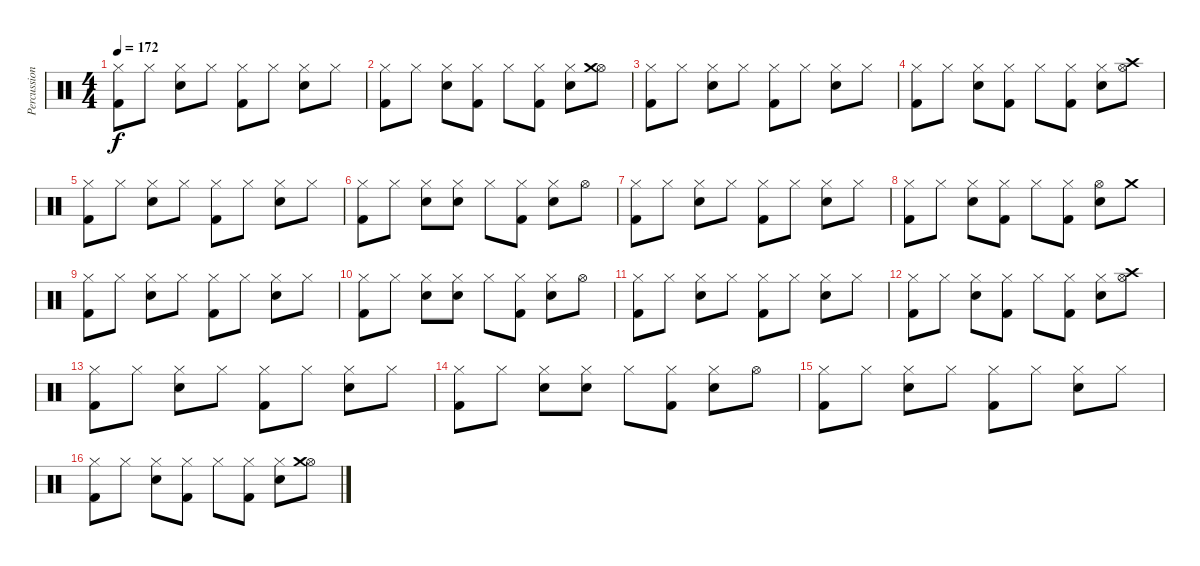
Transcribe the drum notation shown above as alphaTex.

\track ("Percussions" "Percussion") {instrument percussion}
\staff {score}
\articulation defaults
\ts (4 4)
\tempo 172
\clef neutral
\ks c
("Hi-Hat (closed)" "Kick (hit) 2").8{dy f} "Hi-Hat (closed)".8 ("Hi-Hat (closed)" "Electric Snare (hit)").8 "Hi-Hat (closed)".8 ("Hi-Hat (closed)" "Kick (hit) 2").8 "Hi-Hat (closed)".8 ("Hi-Hat (closed)" "Electric Snare (hit)").8 "Hi-Hat (closed)".8 |
("Hi-Hat (closed)" "Kick (hit) 2").8 "Hi-Hat (closed)".8 ("Hi-Hat (closed)" "Electric Snare (hit)").8 ("Hi-Hat (closed)" "Kick (hit) 2").8 "Hi-Hat (closed)".8 ("Hi-Hat (closed)" "Kick (hit) 2").8 ("Hi-Hat (closed)" "Electric Snare (hit)").8 ("Hi-Hat (open)" "Crash medium (hit)").8 |
("Hi-Hat (closed)" "Kick (hit) 2").8 "Hi-Hat (closed)".8 ("Hi-Hat (closed)" "Electric Snare (hit)").8 "Hi-Hat (closed)".8 ("Hi-Hat (closed)" "Kick (hit) 2").8 "Hi-Hat (closed)".8 ("Hi-Hat (closed)" "Electric Snare (hit)").8 "Hi-Hat (closed)".8 |
("Hi-Hat (closed)" "Kick (hit) 2").8 "Hi-Hat (closed)".8 ("Hi-Hat (closed)" "Electric Snare (hit)").8 ("Hi-Hat (closed)" "Kick (hit) 2").8 "Hi-Hat (closed)".8 ("Hi-Hat (closed)" "Kick (hit) 2").8 ("Hi-Hat (closed)" "Electric Snare (hit)").8 ("Hi-Hat (open)" "Crash high (hit)").8 |
("Hi-Hat (closed)" "Kick (hit) 2").8 "Hi-Hat (closed)".8 ("Hi-Hat (closed)" "Electric Snare (hit)").8 "Hi-Hat (closed)".8 ("Hi-Hat (closed)" "Kick (hit) 2").8 "Hi-Hat (closed)".8 ("Hi-Hat (closed)" "Electric Snare (hit)").8 "Hi-Hat (closed)".8 |
("Hi-Hat (closed)" "Kick (hit) 2").8 "Hi-Hat (closed)".8 ("Hi-Hat (closed)" "Electric Snare (hit)").8 ("Hi-Hat (closed)" "Electric Snare (hit)").8 "Hi-Hat (closed)".8 ("Hi-Hat (closed)" "Kick (hit) 2").8 ("Hi-Hat (closed)" "Electric Snare (hit)").8 "Hi-Hat (open)".8 |
("Hi-Hat (closed)" "Kick (hit) 2").8 "Hi-Hat (closed)".8 ("Hi-Hat (closed)" "Electric Snare (hit)").8 "Hi-Hat (closed)".8 ("Hi-Hat (closed)" "Kick (hit) 2").8 "Hi-Hat (closed)".8 ("Hi-Hat (closed)" "Electric Snare (hit)").8 "Hi-Hat (closed)".8 |
("Hi-Hat (closed)" "Kick (hit) 2").8 "Hi-Hat (closed)".8 ("Hi-Hat (closed)" "Electric Snare (hit)").8 ("Hi-Hat (closed)" "Kick (hit) 2").8 "Hi-Hat (closed)".8 ("Hi-Hat (closed)" "Kick (hit) 2").8 ("Hi-Hat (open)" "Electric Snare (hit)").8 "Crash medium (hit)".8 |
("Hi-Hat (closed)" "Kick (hit) 2").8 "Hi-Hat (closed)".8 ("Hi-Hat (closed)" "Electric Snare (hit)").8 "Hi-Hat (closed)".8 ("Hi-Hat (closed)" "Kick (hit) 2").8 "Hi-Hat (closed)".8 ("Hi-Hat (closed)" "Electric Snare (hit)").8 "Hi-Hat (closed)".8 |
("Hi-Hat (closed)" "Kick (hit) 2").8 "Hi-Hat (closed)".8 ("Hi-Hat (closed)" "Electric Snare (hit)").8 ("Hi-Hat (closed)" "Electric Snare (hit)").8 "Hi-Hat (closed)".8 ("Hi-Hat (closed)" "Kick (hit) 2").8 ("Hi-Hat (closed)" "Electric Snare (hit)").8 "Hi-Hat (open)".8 |
("Hi-Hat (closed)" "Kick (hit) 2").8 "Hi-Hat (closed)".8 ("Hi-Hat (closed)" "Electric Snare (hit)").8 "Hi-Hat (closed)".8 ("Hi-Hat (closed)" "Kick (hit) 2").8 "Hi-Hat (closed)".8 ("Hi-Hat (closed)" "Electric Snare (hit)").8 "Hi-Hat (closed)".8 |
("Hi-Hat (closed)" "Kick (hit) 2").8 "Hi-Hat (closed)".8 ("Hi-Hat (closed)" "Electric Snare (hit)").8 ("Hi-Hat (closed)" "Kick (hit) 2").8 "Hi-Hat (closed)".8 ("Hi-Hat (closed)" "Kick (hit) 2").8 ("Hi-Hat (closed)" "Electric Snare (hit)").8 ("Hi-Hat (open)" "Crash high (hit)").8 |
("Hi-Hat (closed)" "Kick (hit) 2").8 "Hi-Hat (closed)".8 ("Hi-Hat (closed)" "Electric Snare (hit)").8 "Hi-Hat (closed)".8 ("Hi-Hat (closed)" "Kick (hit) 2").8 "Hi-Hat (closed)".8 ("Hi-Hat (closed)" "Electric Snare (hit)").8 "Hi-Hat (closed)".8 |
("Hi-Hat (closed)" "Kick (hit) 2").8 "Hi-Hat (closed)".8 ("Hi-Hat (closed)" "Electric Snare (hit)").8 ("Hi-Hat (closed)" "Electric Snare (hit)").8 "Hi-Hat (closed)".8 ("Hi-Hat (closed)" "Kick (hit) 2").8 ("Hi-Hat (closed)" "Electric Snare (hit)").8 "Hi-Hat (open)".8 |
("Hi-Hat (closed)" "Kick (hit) 2").8 "Hi-Hat (closed)".8 ("Hi-Hat (closed)" "Electric Snare (hit)").8 "Hi-Hat (closed)".8 ("Hi-Hat (closed)" "Kick (hit) 2").8 "Hi-Hat (closed)".8 ("Hi-Hat (closed)" "Electric Snare (hit)").8 "Hi-Hat (closed)".8 |
("Hi-Hat (closed)" "Kick (hit) 2").8 "Hi-Hat (closed)".8 ("Hi-Hat (closed)" "Electric Snare (hit)").8 ("Hi-Hat (closed)" "Kick (hit) 2").8 "Hi-Hat (closed)".8 ("Hi-Hat (closed)" "Kick (hit) 2").8 ("Hi-Hat (closed)" "Electric Snare (hit)").8 ("Hi-Hat (open)" "Crash medium (hit)").8
